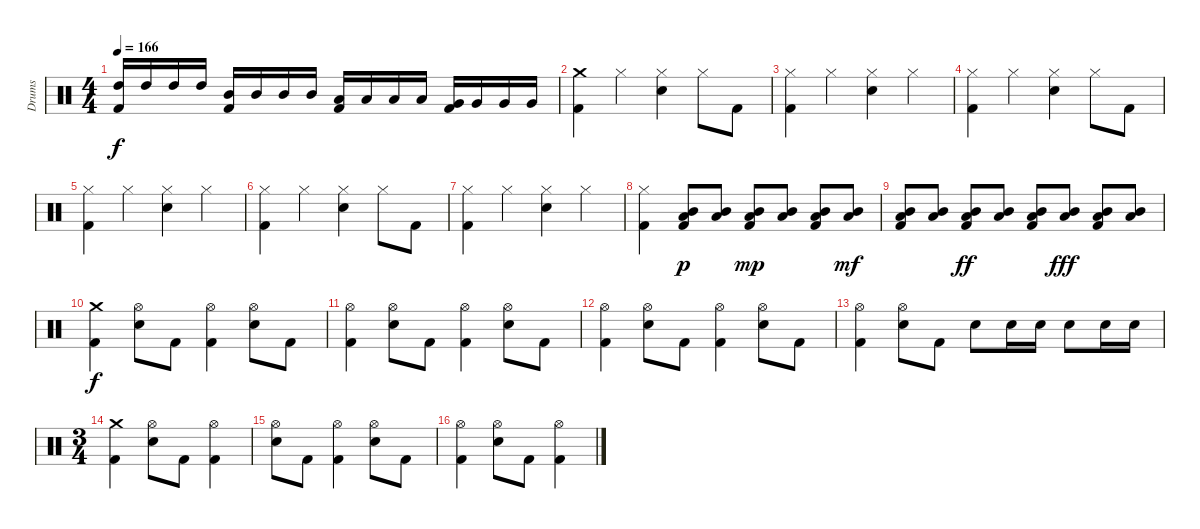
\track ("Drums" "Drums") {instrument percussion}
\staff {score}
\articulation defaults
\ts (4 4)
\tempo 166
\clef neutral
\ks c
("High Tom (hit)" "Kick (hit) 2").16{dy f} "High Tom (hit)".16 "High Tom (hit)".16 "High Tom (hit)".16 ("Mid Tom (hit)" "Kick (hit) 2").16 "Mid Tom (hit)".16 "Mid Tom (hit)".16 "Mid Tom (hit)".16 ("Low Tom (hit)" "Kick (hit) 2").16 "Low Tom (hit)".16 "Low Tom (hit)".16 "Low Tom (hit)".16 ("Very Low Tom (hit)" "Kick (hit) 2").16 "Very Low Tom (hit)".16 "Very Low Tom (hit)".16 "Very Low Tom (hit)".16 |
("Crash medium (hit)" "Kick (hit) 2").4 "Hi-Hat (closed)".4 ("Hi-Hat (closed)" "Snare (hit) 2").4 "Hi-Hat (closed)".8 "Kick (hit) 2".8 |
("Hi-Hat (closed)" "Kick (hit) 2").4 "Hi-Hat (closed)".4 ("Hi-Hat (closed)" "Snare (hit) 2").4 "Hi-Hat (closed)".4 |
("Hi-Hat (closed)" "Kick (hit) 2").4 "Hi-Hat (closed)".4 ("Hi-Hat (closed)" "Snare (hit) 2").4 "Hi-Hat (closed)".8 "Kick (hit) 2".8 |
("Hi-Hat (closed)" "Kick (hit) 2").4 "Hi-Hat (closed)".4 ("Hi-Hat (closed)" "Snare (hit) 2").4 "Hi-Hat (closed)".4 |
("Hi-Hat (closed)" "Kick (hit) 2").4 "Hi-Hat (closed)".4 ("Hi-Hat (closed)" "Snare (hit) 2").4 "Hi-Hat (closed)".8 "Kick (hit) 2".8 |
("Hi-Hat (closed)" "Kick (hit) 2").4 "Hi-Hat (closed)".4 ("Hi-Hat (closed)" "Snare (hit) 2").4 "Hi-Hat (closed)".4 |
("Hi-Hat (closed)" "Kick (hit) 2").4 ("Mid Tom (hit)" "Low Tom (hit)" "Kick (hit) 2").8{dy p} ("Mid Tom (hit)" "Low Tom (hit)").8 ("Mid Tom (hit)" "Low Tom (hit)" "Kick (hit) 2").8{dy mp} ("Mid Tom (hit)" "Low Tom (hit)").8 ("Mid Tom (hit)" "Low Tom (hit)" "Kick (hit) 2").8 ("Mid Tom (hit)" "Low Tom (hit)").8{dy mf} |
("Mid Tom (hit)" "Low Tom (hit)" "Kick (hit) 2").8 ("Mid Tom (hit)" "Low Tom (hit)").8 ("Mid Tom (hit)" "Low Tom (hit)" "Kick (hit) 2").8{dy ff} ("Mid Tom (hit)" "Low Tom (hit)").8 ("Mid Tom (hit)" "Low Tom (hit)" "Kick (hit) 2").8 ("Mid Tom (hit)" "Low Tom (hit)").8{dy fff} ("Mid Tom (hit)" "Low Tom (hit)" "Kick (hit) 2").8 ("Mid Tom (hit)" "Low Tom (hit)").8 |
("Crash medium (hit)" "Kick (hit) 2").4{dy f} ("Hi-Hat (open)" "Snare (hit) 2").8 "Kick (hit) 2".8 ("Hi-Hat (open)" "Kick (hit) 2").4 ("Hi-Hat (open)" "Snare (hit) 2").8 "Kick (hit) 2".8 |
("Hi-Hat (open)" "Kick (hit) 2").4 ("Hi-Hat (open)" "Snare (hit) 2").8 "Kick (hit) 2".8 ("Hi-Hat (open)" "Kick (hit) 2").4 ("Hi-Hat (open)" "Snare (hit) 2").8 "Kick (hit) 2".8 |
("Hi-Hat (open)" "Kick (hit) 2").4 ("Hi-Hat (open)" "Snare (hit) 2").8 "Kick (hit) 2".8 ("Hi-Hat (open)" "Kick (hit) 2").4 ("Hi-Hat (open)" "Snare (hit) 2").8 "Kick (hit) 2".8 |
("Hi-Hat (open)" "Kick (hit) 2").4 ("Hi-Hat (open)" "Snare (hit) 2").8 "Kick (hit) 2".8 "Snare (hit) 2".8 "Snare (hit) 2".16 "Snare (hit) 2".16 "Snare (hit) 2".8 "Snare (hit) 2".16 "Snare (hit) 2".16 |
\ts (3 4)
("Crash medium (hit)" "Kick (hit) 2").4 ("Hi-Hat (open)" "Snare (hit) 2").8 "Kick (hit) 2".8 ("Hi-Hat (open)" "Kick (hit) 2").4 |
("Hi-Hat (open)" "Snare (hit) 2").8 "Kick (hit) 2".8 ("Hi-Hat (open)" "Kick (hit) 2").4 ("Hi-Hat (open)" "Snare (hit) 2").8 "Kick (hit) 2".8 |
("Hi-Hat (open)" "Kick (hit) 2").4 ("Hi-Hat (open)" "Snare (hit) 2").8 "Kick (hit) 2".8 ("Hi-Hat (open)" "Kick (hit) 2").4
